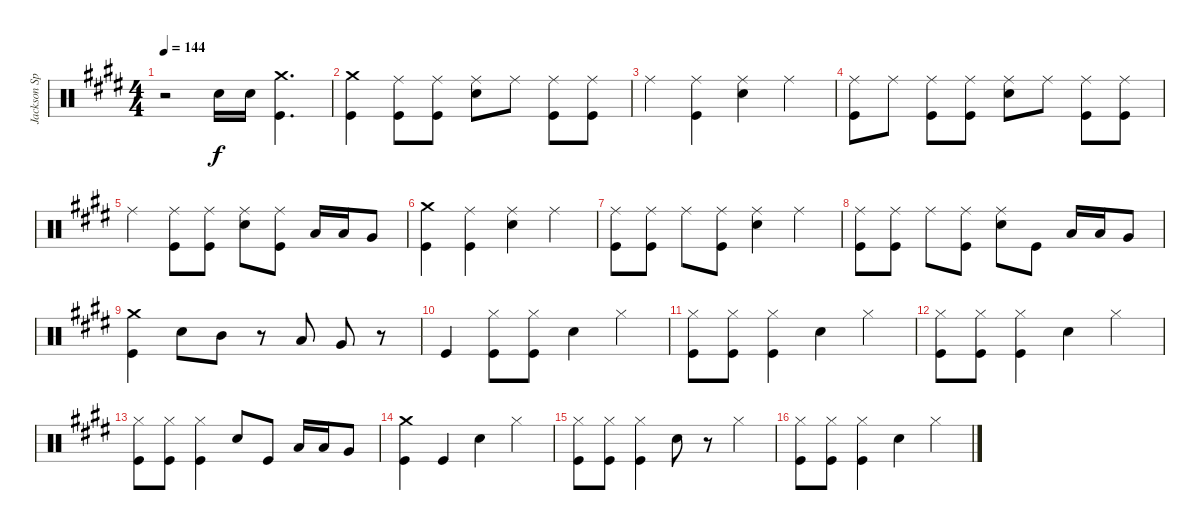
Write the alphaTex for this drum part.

\track ("Jackson Spiers Drums" "Jackson Sp") {instrument percussion}
\staff {score}
\articulation defaults
\ts (4 4)
\tempo 144
\clef neutral
\ks c#minor
r.2{dy f} "Snare (hit) 2".16{volume 12} "Snare (hit) 2".16 ("Crash medium (hit)" "Kick (hit)").4{d} |
("Crash medium (hit)" "Kick (hit)").4 ("Ride (middle)" "Kick (hit)").8 ("Ride (middle)" "Kick (hit)").8 ("Ride (middle)" "Snare (hit) 2").8 "Ride (middle)".8 ("Ride (middle)" "Kick (hit)").8 ("Ride (middle)" "Kick (hit)").8 |
"Ride (middle)".4 ("Ride (middle)" "Kick (hit)").4 ("Ride (middle)" "Snare (hit) 2").4 "Ride (middle)".4 |
("Ride (middle)" "Kick (hit)").8 "Ride (middle)".8 ("Ride (middle)" "Kick (hit)").8 ("Ride (middle)" "Kick (hit)").8 ("Ride (middle)" "Snare (hit) 2").8 "Ride (middle)".8 ("Ride (middle)" "Kick (hit)").8 ("Ride (middle)" "Kick (hit)").8 |
"Ride (middle)".4 ("Ride (middle)" "Kick (hit)").8 ("Ride (middle)" "Kick (hit)").8 ("Ride (middle)" "Snare (hit) 2").8 ("Ride (middle)" "Kick (hit)").8 "Low Tom (hit)".16 "Low Tom (hit)".16 "Very Low Tom (hit)".8 |
("Crash medium (hit)" "Kick (hit)").4 ("Ride (middle)" "Kick (hit)").4 ("Ride (middle)" "Snare (hit) 2").4 "Ride (middle)".4 |
("Ride (middle)" "Kick (hit)").8 ("Ride (middle)" "Kick (hit)").8 "Ride (middle)".8 ("Ride (middle)" "Kick (hit)").8 ("Ride (middle)" "Snare (hit) 2").4 "Ride (middle)".4 |
("Ride (middle)" "Kick (hit)").8 ("Ride (middle)" "Kick (hit)").8 "Ride (middle)".8 ("Ride (middle)" "Kick (hit)").8 ("Ride (middle)" "Snare (hit) 2").8 "Kick (hit)".8 "Low Tom (hit)".16 "Low Tom (hit)".16 "Very Low Tom (hit)".8 |
("Crash medium (hit)" "Kick (hit)").4 "Snare (hit) 2".8 "Mid Tom (hit)".8 r.8 "Low Tom (hit)".8 "Very Low Tom (hit)".8 r.8 |
"Kick (hit)".4 ("Hi-Hat (closed)" "Kick (hit)").8 ("Hi-Hat (closed)" "Kick (hit)").8 "Snare (hit) 2".4 "Hi-Hat (closed)".4 |
("Hi-Hat (closed)" "Kick (hit)").8 ("Hi-Hat (closed)" "Kick (hit)").8 ("Hi-Hat (closed)" "Kick (hit)").4 "Snare (hit) 2".4 "Hi-Hat (closed)".4 |
("Hi-Hat (closed)" "Kick (hit)").8 ("Hi-Hat (closed)" "Kick (hit)").8 ("Hi-Hat (closed)" "Kick (hit)").4 "Snare (hit) 2".4 "Hi-Hat (closed)".4 |
("Hi-Hat (closed)" "Kick (hit)").8 ("Hi-Hat (closed)" "Kick (hit)").8 ("Hi-Hat (closed)" "Kick (hit)").4 "Snare (hit) 2".8 "Kick (hit)".8 "Low Tom (hit)".16 "Low Tom (hit)".16 "Very Low Tom (hit)".8 |
("Crash medium (hit)" "Kick (hit)").4 "Kick (hit)".4 "Snare (hit) 2".4 "Hi-Hat (closed)".4 |
("Hi-Hat (closed)" "Kick (hit)").8 ("Hi-Hat (closed)" "Kick (hit)").8 ("Hi-Hat (closed)" "Kick (hit)").4 "Snare (hit) 2".8 r.8 "Hi-Hat (closed)".4 |
("Hi-Hat (closed)" "Kick (hit)").8 ("Hi-Hat (closed)" "Kick (hit)").8 ("Hi-Hat (closed)" "Kick (hit)").4 "Snare (hit) 2".4 "Hi-Hat (closed)".4
